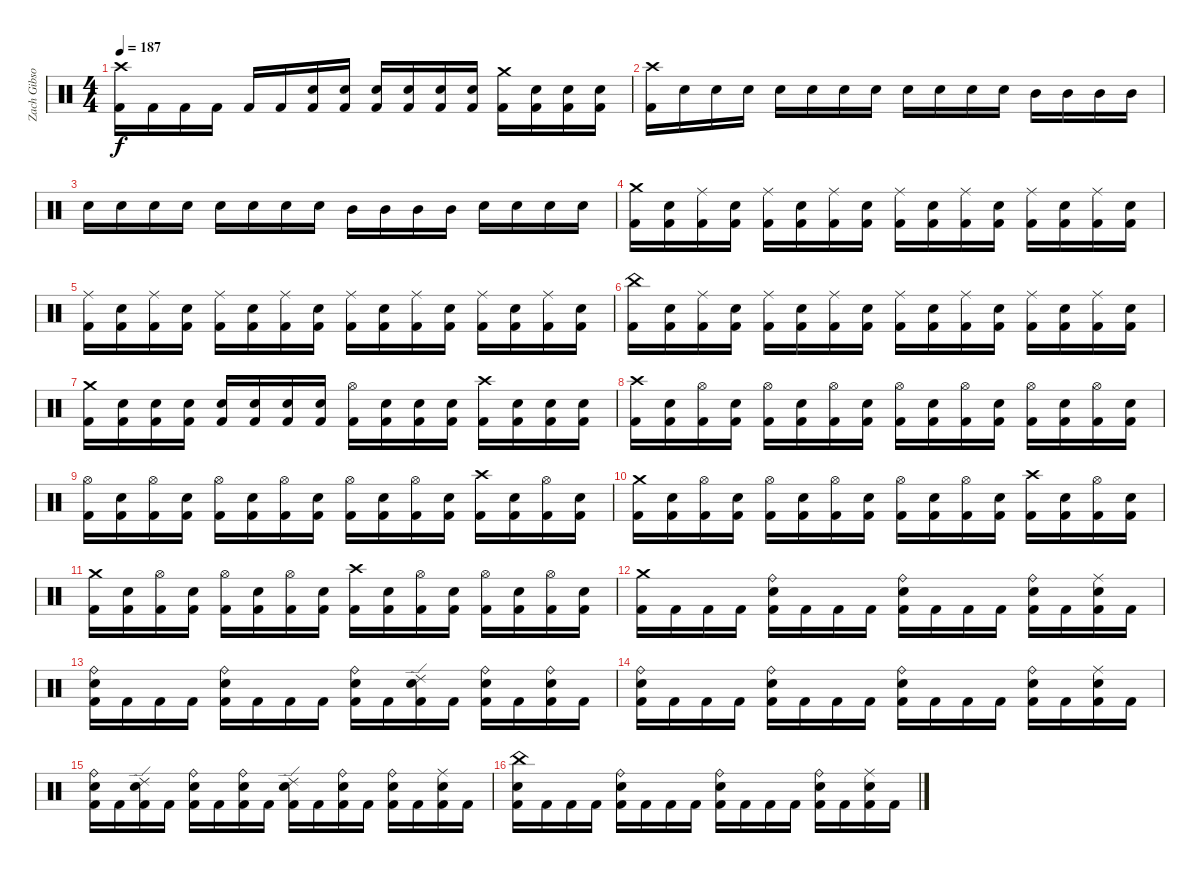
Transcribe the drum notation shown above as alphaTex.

\track ("Zach Gibson (Ex-Drums)" "Zach Gibso") {instrument percussion}
\staff {score}
\articulation defaults
\ts (4 4)
\tempo 187
\clef neutral
\ks c
("Crash high (hit)" "Kick (hit) 2").16{dy f} "Kick (hit) 2".16 "Kick (hit) 2".16 "Kick (hit) 2".16 "Kick (hit) 2".16 "Kick (hit) 2".16 ("Snare (hit) 2" "Kick (hit) 2").16 ("Snare (hit) 2" "Kick (hit) 2").16 ("Snare (hit) 2" "Kick (hit) 2").16 ("Snare (hit) 2" "Kick (hit) 2").16 ("Snare (hit) 2" "Kick (hit) 2").16 ("Snare (hit) 2" "Kick (hit) 2").16 ("Crash medium (hit)" "Kick (hit) 2").16 ("Snare (hit) 2" "Kick (hit) 2").16 ("Snare (hit) 2" "Kick (hit) 2").16 ("Snare (hit) 2" "Kick (hit) 2").16 |
("Crash high (hit)" "Kick (hit) 2").16 "Snare (hit) 2".16 "Snare (hit) 2".16 "Snare (hit) 2".16 "Snare (hit) 2".16 "Snare (hit) 2".16 "Snare (hit) 2".16 "Snare (hit) 2".16 "Snare (hit) 2".16 "Snare (hit) 2".16 "Snare (hit) 2".16 "Snare (hit) 2".16 "Mid Tom (hit)".16 "Mid Tom (hit)".16 "Mid Tom (hit)".16 "Mid Tom (hit)".16 |
"Snare (hit) 2".16 "Snare (hit) 2".16 "Snare (hit) 2".16 "Snare (hit) 2".16 "Snare (hit) 2".16 "Snare (hit) 2".16 "Snare (hit) 2".16 "Snare (hit) 2".16 "Mid Tom (hit)".16 "Mid Tom (hit)".16 "Mid Tom (hit)".16 "Mid Tom (hit)".16 "Snare (hit) 2".16 "Snare (hit) 2".16 "Snare (hit) 2".16 "Snare (hit) 2".16 |
("Crash medium (hit)" "Kick (hit) 2").16 ("Snare (hit) 2" "Kick (hit) 2").16 ("Ride (middle)" "Kick (hit) 2").16 ("Snare (hit) 2" "Kick (hit) 2").16 ("Ride (middle)" "Kick (hit) 2").16 ("Snare (hit) 2" "Kick (hit) 2").16 ("Ride (middle)" "Kick (hit) 2").16 ("Snare (hit) 2" "Kick (hit) 2").16 ("Ride (middle)" "Kick (hit) 2").16 ("Snare (hit) 2" "Kick (hit) 2").16 ("Ride (middle)" "Kick (hit) 2").16 ("Snare (hit) 2" "Kick (hit) 2").16 ("Ride (middle)" "Kick (hit) 2").16 ("Snare (hit) 2" "Kick (hit) 2").16 ("Ride (middle)" "Kick (hit) 2").16 ("Snare (hit) 2" "Kick (hit) 2").16 |
("Ride (middle)" "Kick (hit) 2").16 ("Snare (hit) 2" "Kick (hit) 2").16 ("Ride (middle)" "Kick (hit) 2").16 ("Snare (hit) 2" "Kick (hit) 2").16 ("Ride (middle)" "Kick (hit) 2").16 ("Snare (hit) 2" "Kick (hit) 2").16 ("Ride (middle)" "Kick (hit) 2").16 ("Snare (hit) 2" "Kick (hit) 2").16 ("Ride (middle)" "Kick (hit) 2").16 ("Snare (hit) 2" "Kick (hit) 2").16 ("Ride (middle)" "Kick (hit) 2").16 ("Snare (hit) 2" "Kick (hit) 2").16 ("Ride (middle)" "Kick (hit) 2").16 ("Snare (hit) 2" "Kick (hit) 2").16 ("Ride (middle)" "Kick (hit) 2").16 ("Snare (hit) 2" "Kick (hit) 2").16 |
("China (hit)" "Kick (hit) 2").16 ("Snare (hit) 2" "Kick (hit) 2").16 ("Ride (middle)" "Kick (hit) 2").16 ("Snare (hit) 2" "Kick (hit) 2").16 ("Ride (middle)" "Kick (hit) 2").16 ("Snare (hit) 2" "Kick (hit) 2").16 ("Ride (middle)" "Kick (hit) 2").16 ("Snare (hit) 2" "Kick (hit) 2").16 ("Ride (middle)" "Kick (hit) 2").16 ("Snare (hit) 2" "Kick (hit) 2").16 ("Ride (middle)" "Kick (hit) 2").16 ("Snare (hit) 2" "Kick (hit) 2").16 ("Ride (middle)" "Kick (hit) 2").16 ("Snare (hit) 2" "Kick (hit) 2").16 ("Ride (middle)" "Kick (hit) 2").16 ("Snare (hit) 2" "Kick (hit) 2").16 |
("Crash medium (hit)" "Kick (hit) 2").16 ("Snare (hit) 2" "Kick (hit) 2").16 ("Snare (hit) 2" "Kick (hit) 2").16 ("Snare (hit) 2" "Kick (hit) 2").16 ("Snare (hit) 2" "Kick (hit) 2").16 ("Snare (hit) 2" "Kick (hit) 2").16 ("Snare (hit) 2" "Kick (hit) 2").16 ("Snare (hit) 2" "Kick (hit) 2").16 ("Hi-Hat (open)" "Kick (hit) 2").16 ("Snare (hit) 2" "Kick (hit) 2").16 ("Snare (hit) 2" "Kick (hit) 2").16 ("Snare (hit) 2" "Kick (hit) 2").16 ("Crash high (hit)" "Kick (hit) 2").16 ("Snare (hit) 2" "Kick (hit) 2").16 ("Snare (hit) 2" "Kick (hit) 2").16 ("Snare (hit) 2" "Kick (hit) 2").16 |
("Crash high (hit)" "Kick (hit) 2").16 ("Snare (hit) 2" "Kick (hit) 2").16 ("Hi-Hat (open)" "Kick (hit) 2").16 ("Snare (hit) 2" "Kick (hit) 2").16 ("Hi-Hat (open)" "Kick (hit) 2").16 ("Snare (hit) 2" "Kick (hit) 2").16 ("Hi-Hat (open)" "Kick (hit) 2").16 ("Snare (hit) 2" "Kick (hit) 2").16 ("Hi-Hat (open)" "Kick (hit) 2").16 ("Snare (hit) 2" "Kick (hit) 2").16 ("Hi-Hat (open)" "Kick (hit) 2").16 ("Snare (hit) 2" "Kick (hit) 2").16 ("Hi-Hat (open)" "Kick (hit) 2").16 ("Snare (hit) 2" "Kick (hit) 2").16 ("Hi-Hat (open)" "Kick (hit) 2").16 ("Snare (hit) 2" "Kick (hit) 2").16 |
("Hi-Hat (open)" "Kick (hit) 2").16 ("Snare (hit) 2" "Kick (hit) 2").16 ("Hi-Hat (open)" "Kick (hit) 2").16 ("Snare (hit) 2" "Kick (hit) 2").16 ("Hi-Hat (open)" "Kick (hit) 2").16 ("Snare (hit) 2" "Kick (hit) 2").16 ("Hi-Hat (open)" "Kick (hit) 2").16 ("Snare (hit) 2" "Kick (hit) 2").16 ("Hi-Hat (open)" "Kick (hit) 2").16 ("Snare (hit) 2" "Kick (hit) 2").16 ("Hi-Hat (open)" "Kick (hit) 2").16 ("Snare (hit) 2" "Kick (hit) 2").16 ("Crash high (hit)" "Kick (hit) 2").16 ("Snare (hit) 2" "Kick (hit) 2").16 ("Hi-Hat (open)" "Kick (hit) 2").16 ("Snare (hit) 2" "Kick (hit) 2").16 |
("Crash medium (hit)" "Kick (hit) 2").16 ("Snare (hit) 2" "Kick (hit) 2").16 ("Hi-Hat (open)" "Kick (hit) 2").16 ("Snare (hit) 2" "Kick (hit) 2").16 ("Hi-Hat (open)" "Kick (hit) 2").16 ("Snare (hit) 2" "Kick (hit) 2").16 ("Hi-Hat (open)" "Kick (hit) 2").16 ("Snare (hit) 2" "Kick (hit) 2").16 ("Hi-Hat (open)" "Kick (hit) 2").16 ("Snare (hit) 2" "Kick (hit) 2").16 ("Hi-Hat (open)" "Kick (hit) 2").16 ("Snare (hit) 2" "Kick (hit) 2").16 ("Crash high (hit)" "Kick (hit) 2").16 ("Snare (hit) 2" "Kick (hit) 2").16 ("Hi-Hat (open)" "Kick (hit) 2").16 ("Snare (hit) 2" "Kick (hit) 2").16 |
("Crash medium (hit)" "Kick (hit) 2").16 ("Snare (hit) 2" "Kick (hit) 2").16 ("Hi-Hat (open)" "Kick (hit) 2").16 ("Snare (hit) 2" "Kick (hit) 2").16 ("Hi-Hat (open)" "Kick (hit) 2").16 ("Snare (hit) 2" "Kick (hit) 2").16 ("Hi-Hat (open)" "Kick (hit) 2").16 ("Snare (hit) 2" "Kick (hit) 2").16 ("Crash high (hit)" "Kick (hit) 2").16 ("Snare (hit) 2" "Kick (hit) 2").16 ("Hi-Hat (open)" "Kick (hit) 2").16 ("Snare (hit) 2" "Kick (hit) 2").16 ("Hi-Hat (open)" "Kick (hit) 2").16 ("Snare (hit) 2" "Kick (hit) 2").16 ("Hi-Hat (open)" "Kick (hit) 2").16 ("Snare (hit) 2" "Kick (hit) 2").16 |
("Crash medium (hit)" "Kick (hit) 2").16 "Kick (hit) 2".16 "Kick (hit) 2".16 "Kick (hit) 2".16 ("Snare (hit) 2" "Ride (bell)" "Kick (hit) 2").16 "Kick (hit) 2".16 "Kick (hit) 2".16 "Kick (hit) 2".16 ("Snare (hit) 2" "Ride (bell)" "Kick (hit) 2").16 "Kick (hit) 2".16 "Kick (hit) 2".16 "Kick (hit) 2".16 ("Ride (bell)" "Snare (hit) 2" "Kick (hit) 2").16 "Kick (hit) 2".16 ("Ride (middle)" "Snare (hit) 2" "Kick (hit) 2").16 "Kick (hit) 2".16 |
("Ride (bell)" "Snare (hit) 2" "Kick (hit) 2").16 "Kick (hit) 2".16 "Kick (hit) 2".16 "Kick (hit) 2".16 ("Snare (hit) 2" "Ride (bell)" "Kick (hit) 2").16 "Kick (hit) 2".16 "Kick (hit) 2".16 "Kick (hit) 2".16 ("Snare (hit) 2" "Ride (bell)" "Kick (hit) 2").16 "Kick (hit) 2".16 ("Ride (edge) 2" "Snare (hit) 2" "Kick (hit) 2").16 "Kick (hit) 2".16 ("Ride (bell)" "Snare (hit) 2" "Kick (hit) 2").16 "Kick (hit) 2".16 ("Ride (bell)" "Snare (hit) 2" "Kick (hit) 2").16 "Kick (hit) 2".16 |
("Ride (bell)" "Snare (hit) 2" "Kick (hit) 2").16 "Kick (hit) 2".16 "Kick (hit) 2".16 "Kick (hit) 2".16 ("Snare (hit) 2" "Ride (bell)" "Kick (hit) 2").16 "Kick (hit) 2".16 "Kick (hit) 2".16 "Kick (hit) 2".16 ("Snare (hit) 2" "Ride (bell)" "Kick (hit) 2").16 "Kick (hit) 2".16 "Kick (hit) 2".16 "Kick (hit) 2".16 ("Ride (bell)" "Snare (hit) 2" "Kick (hit) 2").16 "Kick (hit) 2".16 ("Ride (middle)" "Snare (hit) 2" "Kick (hit) 2").16 "Kick (hit) 2".16 |
("Ride (bell)" "Snare (hit) 2" "Kick (hit) 2").16 "Kick (hit) 2".16 ("Ride (edge) 2" "Snare (hit) 2" "Kick (hit) 2").16 "Kick (hit) 2".16 ("Snare (hit) 2" "Ride (bell)" "Kick (hit) 2").16 "Kick (hit) 2".16 ("Ride (bell)" "Snare (hit) 2" "Kick (hit) 2").16 "Kick (hit) 2".16 ("Snare (hit) 2" "Ride (edge) 2" "Kick (hit) 2").16 "Kick (hit) 2".16 ("Ride (bell)" "Snare (hit) 2" "Kick (hit) 2").16 "Kick (hit) 2".16 ("Ride (bell)" "Snare (hit) 2" "Kick (hit) 2").16 "Kick (hit) 2".16 ("Ride (middle)" "Snare (hit) 2" "Kick (hit) 2").16 "Kick (hit) 2".16 |
("Snare (hit) 2" "China (hit)" "Kick (hit) 2").16 "Kick (hit) 2".16 "Kick (hit) 2".16 "Kick (hit) 2".16 ("Snare (hit) 2" "Ride (bell)" "Kick (hit) 2").16 "Kick (hit) 2".16 "Kick (hit) 2".16 "Kick (hit) 2".16 ("Snare (hit) 2" "Ride (bell)" "Kick (hit) 2").16 "Kick (hit) 2".16 "Kick (hit) 2".16 "Kick (hit) 2".16 ("Ride (bell)" "Snare (hit) 2" "Kick (hit) 2").16 "Kick (hit) 2".16 ("Ride (middle)" "Snare (hit) 2" "Kick (hit) 2").16 "Kick (hit) 2".16
